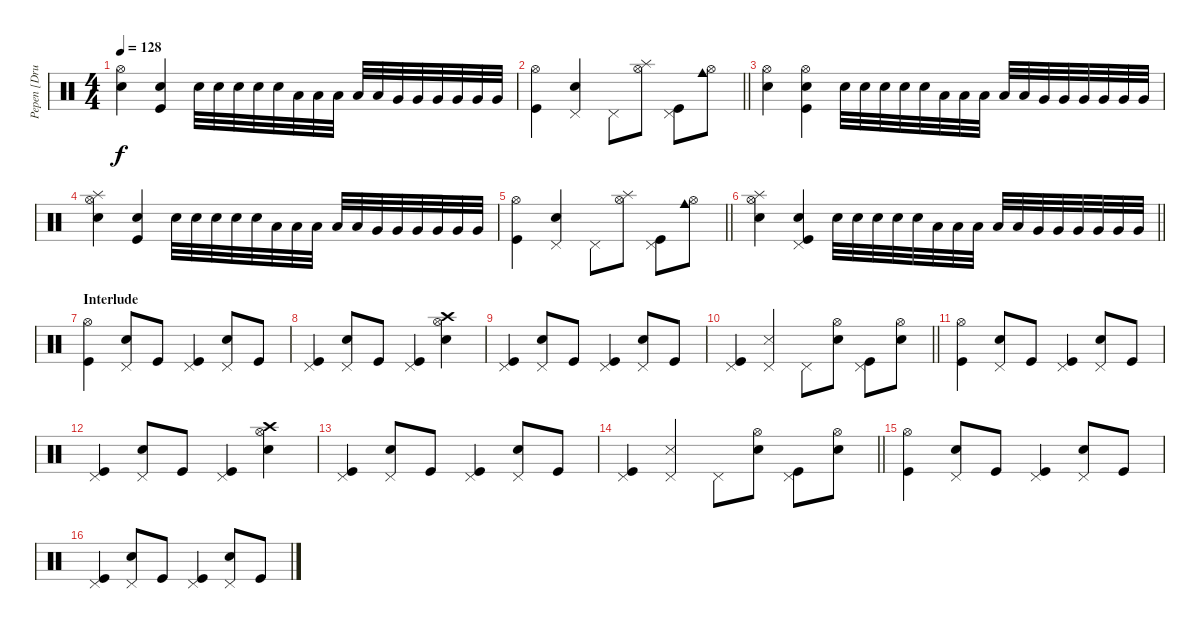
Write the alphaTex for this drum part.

\track ("Pepen [Drum]" "Pepen [Dru") {instrument percussion}
\staff {score}
\articulation defaults
\ts (4 4)
\tempo 128
\clef neutral
\ks c
("Hi-Hat (open)" "Electric Snare (hit)").4{dy f} ("Kick (hit)" "Snare (hit) 2").4 "Electric Snare (hit)".32 "Electric Snare (hit)".32 "Electric Snare (hit)".32 "Electric Snare (hit)".32 "Electric Snare (hit)".32 "Low Floor Tom (hit)".32 "Low Floor Tom (hit)".32 "Low Floor Tom (hit)".32 "Low Floor Tom (hit)".32 "Low Floor Tom (hit)".32 "Very Low Tom (hit)".32 "Very Low Tom (hit)".32 "Very Low Tom (hit)".32 "Very Low Tom (hit)".32 "Very Low Tom (hit)".32 "Very Low Tom (hit)".32 |
\barLineRight lightlight
("Hi-Hat (open)" "Kick (hit)").4 ("Pedal Hi-Hat (hit)" "Electric Snare (hit)").4 "Pedal Hi-Hat (hit)".8 ("Hi-Hat (open)" "Splash (hit)").8 ("Pedal Hi-Hat (hit)" "Kick (hit)").8 ("Hi-Hat (open)" "Cowbell medium (hit)").8 |
("Hi-Hat (open)" "Electric Snare (hit)").4 ("Hi-Hat (open)" "Kick (hit)" "Snare (hit) 2").4 "Electric Snare (hit)".32 "Electric Snare (hit)".32 "Electric Snare (hit)".32 "Electric Snare (hit)".32 "Electric Snare (hit)".32 "Low Floor Tom (hit)".32 "Low Floor Tom (hit)".32 "Low Floor Tom (hit)".32 "Low Floor Tom (hit)".32 "Low Floor Tom (hit)".32 "Very Low Tom (hit)".32 "Very Low Tom (hit)".32 "Very Low Tom (hit)".32 "Very Low Tom (hit)".32 "Very Low Tom (hit)".32 "Very Low Tom (hit)".32 |
("Hi-Hat (open)" "Splash (hit)" "Electric Snare (hit)").4 ("Kick (hit)" "Snare (hit) 2").4 "Electric Snare (hit)".32 "Electric Snare (hit)".32 "Electric Snare (hit)".32 "Electric Snare (hit)".32 "Electric Snare (hit)".32 "Low Floor Tom (hit)".32 "Low Floor Tom (hit)".32 "Low Floor Tom (hit)".32 "Low Floor Tom (hit)".32 "Low Floor Tom (hit)".32 "Very Low Tom (hit)".32 "Very Low Tom (hit)".32 "Very Low Tom (hit)".32 "Very Low Tom (hit)".32 "Very Low Tom (hit)".32 "Very Low Tom (hit)".32 |
\barLineRight lightlight
("Hi-Hat (open)" "Kick (hit)").4 ("Pedal Hi-Hat (hit)" "Electric Snare (hit)").4 "Pedal Hi-Hat (hit)".8 ("Hi-Hat (open)" "Splash (hit)").8 ("Pedal Hi-Hat (hit)" "Kick (hit)").8 ("Hi-Hat (open)" "Cowbell medium (hit)").8 |
\barLineRight lightlight
("Hi-Hat (open)" "Splash (hit)" "Electric Snare (hit)").4 ("Pedal Hi-Hat (hit)" "Kick (hit)" "Snare (hit) 2").4 "Electric Snare (hit)".32 "Electric Snare (hit)".32 "Electric Snare (hit)".32 "Electric Snare (hit)".32 "Electric Snare (hit)".32 "Low Floor Tom (hit)".32 "Low Floor Tom (hit)".32 "Low Floor Tom (hit)".32 "Low Floor Tom (hit)".32 "Low Floor Tom (hit)".32 "Very Low Tom (hit)".32 "Very Low Tom (hit)".32 "Very Low Tom (hit)".32 "Very Low Tom (hit)".32 "Very Low Tom (hit)".32 "Very Low Tom (hit)".32 |
\section ("" "Interlude")
("Hi-Hat (open)" "Kick (hit)").4 ("Pedal Hi-Hat (hit)" "Electric Snare (hit)").8 "Kick (hit)".8 ("Pedal Hi-Hat (hit)" "Kick (hit)").4 ("Pedal Hi-Hat (hit)" "Electric Snare (hit)").8 "Kick (hit)".8 |
("Pedal Hi-Hat (hit)" "Kick (hit)").4 ("Pedal Hi-Hat (hit)" "Electric Snare (hit)").8 "Kick (hit)".8 ("Pedal Hi-Hat (hit)" "Kick (hit)").4 ("Hi-Hat (open)" "Crash high (hit)" "Electric Snare (hit)").4 |
("Pedal Hi-Hat (hit)" "Kick (hit)").4 ("Pedal Hi-Hat (hit)" "Electric Snare (hit)").8 "Kick (hit)".8 ("Pedal Hi-Hat (hit)" "Kick (hit)").4 ("Pedal Hi-Hat (hit)" "Electric Snare (hit)").8 "Kick (hit)".8 |
\barLineRight lightlight
("Pedal Hi-Hat (hit)" "Kick (hit)").4 ("Pedal Hi-Hat (hit)" "Snare (side stick) 3").4 "Pedal Hi-Hat (hit)".8 ("Hi-Hat (open)" "Electric Snare (hit)").8 ("Pedal Hi-Hat (hit)" "Kick (hit)").8 ("Hi-Hat (open)" "Electric Snare (hit)").8 |
("Hi-Hat (open)" "Kick (hit)").4 ("Pedal Hi-Hat (hit)" "Electric Snare (hit)").8 "Kick (hit)".8 ("Pedal Hi-Hat (hit)" "Kick (hit)").4 ("Pedal Hi-Hat (hit)" "Electric Snare (hit)").8 "Kick (hit)".8 |
("Pedal Hi-Hat (hit)" "Kick (hit)").4 ("Pedal Hi-Hat (hit)" "Electric Snare (hit)").8 "Kick (hit)".8 ("Pedal Hi-Hat (hit)" "Kick (hit)").4 ("Hi-Hat (open)" "Crash high (hit)" "Electric Snare (hit)").4 |
("Pedal Hi-Hat (hit)" "Kick (hit)").4 ("Pedal Hi-Hat (hit)" "Electric Snare (hit)").8 "Kick (hit)".8 ("Pedal Hi-Hat (hit)" "Kick (hit)").4 ("Pedal Hi-Hat (hit)" "Electric Snare (hit)").8 "Kick (hit)".8 |
\barLineRight lightlight
("Pedal Hi-Hat (hit)" "Kick (hit)").4 ("Pedal Hi-Hat (hit)" "Snare (side stick) 3").4 "Pedal Hi-Hat (hit)".8 ("Hi-Hat (open)" "Electric Snare (hit)").8 ("Pedal Hi-Hat (hit)" "Kick (hit)").8 ("Hi-Hat (open)" "Electric Snare (hit)").8 |
("Hi-Hat (open)" "Kick (hit)").4 ("Pedal Hi-Hat (hit)" "Electric Snare (hit)").8 "Kick (hit)".8 ("Pedal Hi-Hat (hit)" "Kick (hit)").4 ("Pedal Hi-Hat (hit)" "Electric Snare (hit)").8 "Kick (hit)".8 |
("Pedal Hi-Hat (hit)" "Kick (hit)").4 ("Pedal Hi-Hat (hit)" "Electric Snare (hit)").8 "Kick (hit)".8 ("Pedal Hi-Hat (hit)" "Kick (hit)").4 ("Pedal Hi-Hat (hit)" "Electric Snare (hit)").8 "Kick (hit)".8
